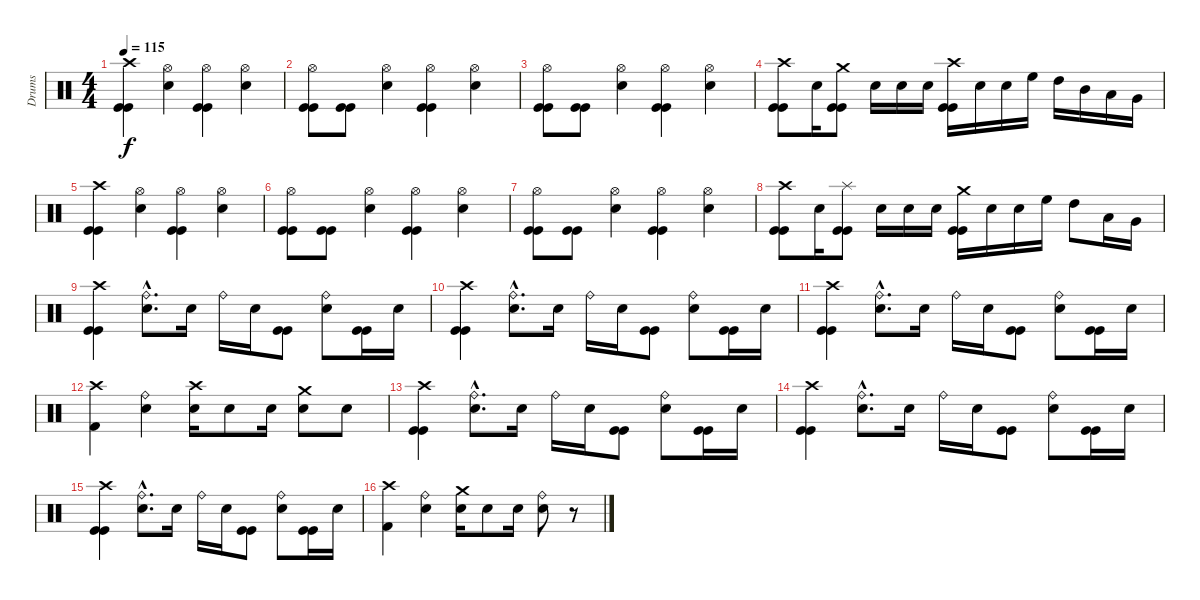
\track ("Drums" "Drums") {instrument percussion}
\staff {score}
\articulation defaults
\ts (4 4)
\tempo 115
\clef neutral
\ks c
("Kick (hit)" "Kick (hit)" "Crash high (hit)").4{dy f} ("Snare (hit) 2" "Hi-Hat (open)").4 ("Kick (hit)" "Kick (hit)" "Hi-Hat (open)").4 ("Snare (hit) 2" "Hi-Hat (open)").4 |
("Kick (hit)" "Kick (hit)" "Hi-Hat (open)").8 ("Kick (hit)" "Kick (hit)").8 ("Snare (hit) 2" "Hi-Hat (open)").4 ("Kick (hit)" "Kick (hit)" "Hi-Hat (open)").4 ("Snare (hit) 2" "Hi-Hat (open)").4 |
("Kick (hit)" "Kick (hit)" "Hi-Hat (open)").8 ("Kick (hit)" "Kick (hit)").8 ("Snare (hit) 2" "Hi-Hat (open)").4 ("Kick (hit)" "Kick (hit)" "Hi-Hat (open)").4 ("Snare (hit) 2" "Hi-Hat (open)").4 |
("Kick (hit)" "Kick (hit)" "Crash high (hit)").8 "Snare (hit) 2".16 ("Kick (hit)" "Kick (hit)" "Crash medium (hit)").8 "Snare (hit) 2".16 "Snare (hit) 2".16 "Snare (hit) 2".16 ("Kick (hit)" "Kick (hit)" "Crash high (hit)").16 "Snare (hit) 2".16 "Snare (hit) 2".16 "High Floor Tom (hit)".16 "High Tom (hit)".16 "Mid Tom (hit)".16 "Low Tom (hit)".16 "Very Low Tom (hit)".16 |
("Kick (hit)" "Kick (hit)" "Crash high (hit)").4 ("Snare (hit) 2" "Hi-Hat (open)").4 ("Kick (hit)" "Kick (hit)" "Hi-Hat (open)").4 ("Snare (hit) 2" "Hi-Hat (open)").4 |
("Kick (hit)" "Kick (hit)" "Hi-Hat (open)").8 ("Kick (hit)" "Kick (hit)").8 ("Snare (hit) 2" "Hi-Hat (open)").4 ("Kick (hit)" "Kick (hit)" "Hi-Hat (open)").4 ("Snare (hit) 2" "Hi-Hat (open)").4 |
("Kick (hit)" "Kick (hit)" "Hi-Hat (open)").8 ("Kick (hit)" "Kick (hit)").8 ("Snare (hit) 2" "Hi-Hat (open)").4 ("Kick (hit)" "Kick (hit)" "Hi-Hat (open)").4 ("Snare (hit) 2" "Hi-Hat (open)").4 |
("Kick (hit)" "Kick (hit)" "Crash high (hit)").8 "Snare (hit) 2".16 ("Kick (hit)" "Kick (hit)" "Splash (hit)").8 "Snare (hit) 2".16 "Snare (hit) 2".16 "Snare (hit) 2".16 ("Kick (hit)" "Kick (hit)" "Crash medium (hit)").16 "Snare (hit) 2".16 "Snare (hit) 2".16 "High Floor Tom (hit)".16 "High Tom (hit)".8 "Low Tom (hit)".16 "Very Low Tom (hit)".16 |
("Kick (hit)" "Kick (hit)" "Crash high (hit)").4 ("Snare (hit) 2"{hac} "Ride (bell)"{hac}).8{d} "Snare (hit) 2".16 "Ride (bell)".16 "Snare (hit) 2".16 ("Kick (hit)" "Kick (hit)").8 ("Snare (hit) 2" "Ride (bell)").8 ("Kick (hit)" "Kick (hit)").16 "Snare (hit) 2".16 |
("Kick (hit)" "Kick (hit)" "Crash high (hit)").4 ("Snare (hit) 2"{hac} "Ride (bell)"{hac}).8{d} "Snare (hit) 2".16 "Ride (bell)".16 "Snare (hit) 2".16 ("Kick (hit)" "Kick (hit)").8 ("Snare (hit) 2" "Ride (bell)").8 ("Kick (hit)" "Kick (hit)").16 "Snare (hit) 2".16 |
("Kick (hit)" "Kick (hit)" "Crash high (hit)").4 ("Snare (hit) 2"{hac} "Ride (bell)"{hac}).8{d} "Snare (hit) 2".16 "Ride (bell)".16 "Snare (hit) 2".16 ("Kick (hit)" "Kick (hit)").8 ("Snare (hit) 2" "Ride (bell)").8 ("Kick (hit)" "Kick (hit)").16 "Snare (hit) 2".16 |
("Kick (hit) 2" "Crash high (hit)").4 ("Snare (hit) 2" "Ride (bell)").4 ("Snare (hit) 2" "Crash high (hit)").16 "Snare (hit) 2".8 "Snare (hit) 2".16 ("Snare (hit) 2" "Crash medium (hit)").8 "Snare (hit) 2".8 |
("Kick (hit)" "Kick (hit)" "Crash high (hit)").4 ("Snare (hit) 2"{hac} "Ride (bell)"{hac}).8{d} "Snare (hit) 2".16 "Ride (bell)".16 "Snare (hit) 2".16 ("Kick (hit)" "Kick (hit)").8 ("Snare (hit) 2" "Ride (bell)").8 ("Kick (hit)" "Kick (hit)").16 "Snare (hit) 2".16 |
("Kick (hit)" "Kick (hit)" "Crash high (hit)").4 ("Snare (hit) 2"{hac} "Ride (bell)"{hac}).8{d} "Snare (hit) 2".16 "Ride (bell)".16 "Snare (hit) 2".16 ("Kick (hit)" "Kick (hit)").8 ("Snare (hit) 2" "Ride (bell)").8 ("Kick (hit)" "Kick (hit)").16 "Snare (hit) 2".16 |
("Kick (hit)" "Kick (hit)" "Crash high (hit)").4 ("Snare (hit) 2"{hac} "Ride (bell)"{hac}).8{d} "Snare (hit) 2".16 "Ride (bell)".16 "Snare (hit) 2".16 ("Kick (hit)" "Kick (hit)").8 ("Snare (hit) 2" "Ride (bell)").8 ("Kick (hit)" "Kick (hit)").16 "Snare (hit) 2".16 |
("Kick (hit) 2" "Crash high (hit)").4 ("Snare (hit) 2" "Ride (bell)").4 ("Snare (hit) 2" "Crash medium (hit)").16 "Snare (hit) 2".8 "Snare (hit) 2".16 ("Snare (hit) 2" "Ride (bell)").8 r.8
